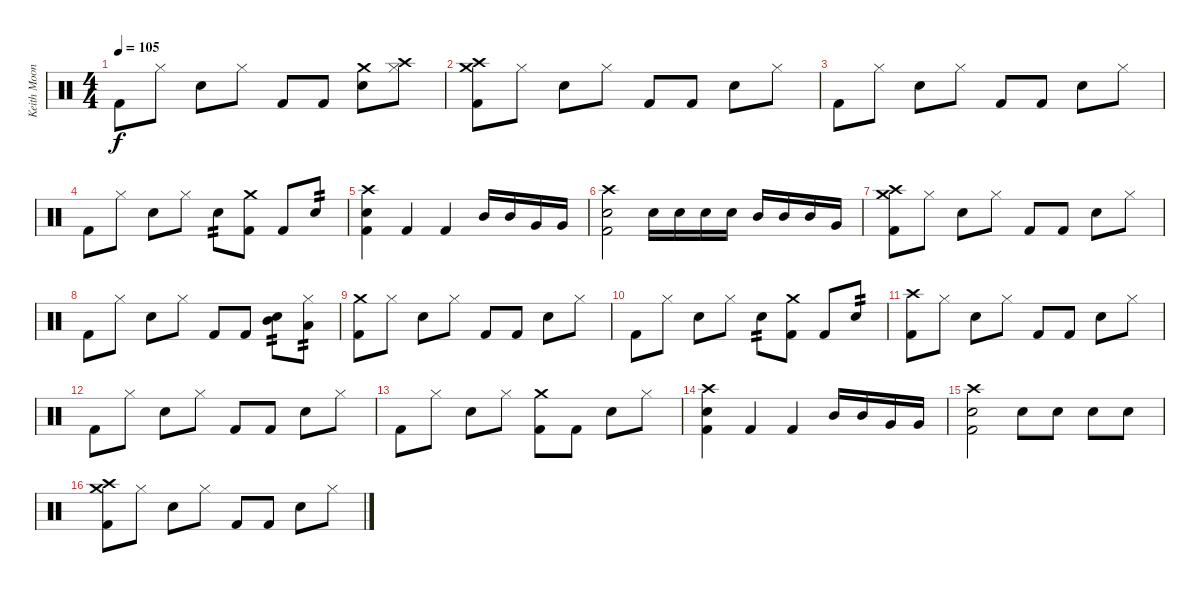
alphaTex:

\track ("Keith Moon" "Keith Moon") {instrument percussion}
\staff {score}
\articulation defaults
\ts (4 4)
\tempo 105
\clef neutral
\ks c "Kick (hit) 2".8{dy f} "Hi-Hat (closed)".8 "Electric Snare (hit)".8 "Hi-Hat (closed)".8 "Kick (hit) 2".8 "Kick (hit) 2".8
("Electric Snare (hit)" "Crash medium (hit)").8 ("Hi-Hat (closed)" "Crash high (hit)").8 |
("Crash high (hit)" "Crash medium (hit)" "Kick (hit) 2").8 "Hi-Hat (closed)".8 "Electric Snare (hit)".8 "Hi-Hat (closed)".8 "Kick (hit) 2".8 "Kick (hit) 2".8 "Electric Snare (hit)".8 "Hi-Hat (closed)".8 |
"Kick (hit) 2".8 "Hi-Hat (closed)".8 "Electric Snare (hit)".8 "Hi-Hat (closed)".8 "Kick (hit) 2".8 "Kick (hit) 2".8 "Electric Snare (hit)".8 "Hi-Hat (closed)".8 |
"Kick (hit) 2".8 "Hi-Hat (closed)".8 "Electric Snare (hit)".8 "Hi-Hat (closed)".8 "Electric Snare (hit)".8{tp 2} ("Crash medium (hit)" "Kick (hit) 2").8 "Kick (hit) 2".8 "Electric Snare (hit)".8{tp 2} |
("Crash high (hit)" "Electric Snare (hit)" "Kick (hit) 2").4 "Kick (hit) 2".4 "Kick (hit) 2".4 "Mid Tom (hit)".16 "Mid Tom (hit)".16 "Very Low Tom (hit)".16 "Very Low Tom (hit)".16 |
("Crash high (hit)" "Electric Snare (hit)" "Kick (hit) 2").2 "Electric Snare (hit)".16 "Electric Snare (hit)".16 "Electric Snare (hit)".16 "Electric Snare (hit)".16 "Mid Tom (hit)".16 "Mid Tom (hit)".16 "Mid Tom (hit)".16 "Very Low Tom (hit)".16 |
("Crash high (hit)" "Crash medium (hit)" "Kick (hit) 2").8 "Hi-Hat (closed)".8 "Electric Snare (hit)".8 "Hi-Hat (closed)".8 "Kick (hit) 2".8 "Kick (hit) 2".8 "Electric Snare (hit)".8 "Hi-Hat (closed)".8 |
"Kick (hit) 2".8 "Hi-Hat (closed)".8 "Electric Snare (hit)".8 "Hi-Hat (closed)".8 "Kick (hit) 2".8 "Kick (hit) 2".8 ("Electric Snare (hit)" "Mid Tom (hit)").8{tp 2} ("Hi-Hat (closed)" "Low Floor Tom (hit)").8{tp 2} |
("Crash medium (hit)" "Kick (hit) 2").8 "Hi-Hat (closed)".8 "Electric Snare (hit)".8 "Hi-Hat (closed)".8 "Kick (hit) 2".8 "Kick (hit) 2".8 "Electric Snare (hit)".8 "Hi-Hat (closed)".8 |
"Kick (hit) 2".8 "Hi-Hat (closed)".8 "Electric Snare (hit)".8 "Hi-Hat (closed)".8 "Electric Snare (hit)".8{tp 2} ("Crash medium (hit)" "Kick (hit) 2").8 "Kick (hit) 2".8 "Electric Snare (hit)".8{tp 2} |
("Crash high (hit)" "Kick (hit) 2").8 "Hi-Hat (closed)".8 "Electric Snare (hit)".8 "Hi-Hat (closed)".8 "Kick (hit) 2".8 "Kick (hit) 2".8 "Electric Snare (hit)".8 "Hi-Hat (closed)".8 |
"Kick (hit) 2".8 "Hi-Hat (closed)".8 "Electric Snare (hit)".8 "Hi-Hat (closed)".8 "Kick (hit) 2".8 "Kick (hit) 2".8 "Electric Snare (hit)".8 "Hi-Hat (closed)".8 |
"Kick (hit) 2".8 "Hi-Hat (closed)".8 "Electric Snare (hit)".8 "Hi-Hat (closed)".8 ("Crash medium (hit)" "Kick (hit) 2").8 "Kick (hit) 2".8 "Electric Snare (hit)".8 "Hi-Hat (closed)".8 |
("Crash high (hit)" "Electric Snare (hit)" "Kick (hit) 2").4 "Kick (hit) 2".4 "Kick (hit) 2".4 "Mid Tom (hit)".16 "Mid Tom (hit)".16 "Very Low Tom (hit)".16 "Very Low Tom (hit)".16 |
("Crash high (hit)" "Electric Snare (hit)" "Kick (hit) 2").2 "Electric Snare (hit)".8 "Electric Snare (hit)".8 "Electric Snare (hit)".8 "Electric Snare (hit)".8 |
("Crash high (hit)" "Crash medium (hit)" "Kick (hit) 2").8 "Hi-Hat (closed)".8 "Electric Snare (hit)".8 "Hi-Hat (closed)".8 "Kick (hit) 2".8 "Kick (hit) 2".8 "Electric Snare (hit)".8 "Hi-Hat (closed)".8
